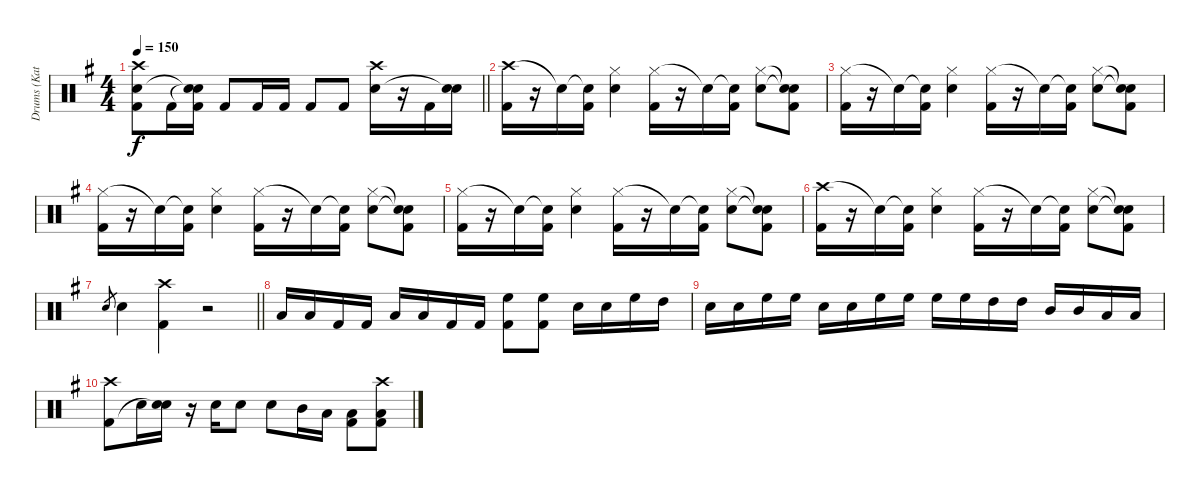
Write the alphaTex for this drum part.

\track ("Drums (Katsuji)" "Drums (Kat") {instrument percussion}
\staff {score}
\articulation defaults
\ts (4 4)
\tempo 150
\clef neutral
\barLineRight lightlight
\ks g
("Crash high (hit)" "Snare (hit) 2" "Kick (hit) 2").8{dy f} "Kick (hit) 2".16 ("Snare (hit)"{t} "Snare (hit)"{t} "Kick (hit) 2").16 "Kick (hit) 2".8 "Kick (hit) 2".16 "Kick (hit) 2".16 "Kick (hit) 2".8 "Kick (hit) 2".8 ("Crash high (hit)" "Snare (hit) 2").16 r.16 "Kick (hit) 2".16 ("Snare (hit) 2" "Snare (hit)"{t}).16 |
("Crash high (hit)" "Kick (hit) 2").16 r.16 "Snare (hit)"{t}.16 ("Snare (hit)"{t} "Kick (hit) 2").16 ("Hi-Hat (closed)" "Snare (hit) 2").4 ("Hi-Hat (closed)" "Kick (hit) 2").16 r.16 "Snare (hit)"{t}.16 ("Snare (hit)"{t} "Kick (hit) 2").16 ("Hi-Hat (closed)" "Snare (hit) 2").8 ("Snare (hit)"{t} "Snare (hit)"{t} "Kick (hit) 2").8 |
("Hi-Hat (closed)" "Kick (hit) 2").16 r.16 "Snare (hit)"{t}.16 ("Snare (hit)"{t} "Kick (hit) 2").16 ("Hi-Hat (closed)" "Snare (hit) 2").4 ("Hi-Hat (closed)" "Kick (hit) 2").16 r.16 "Snare (hit)"{t}.16 ("Snare (hit)"{t} "Kick (hit) 2").16 ("Hi-Hat (closed)" "Snare (hit) 2").8 ("Snare (hit)"{t} "Snare (hit)"{t} "Kick (hit) 2").8 |
("Hi-Hat (closed)" "Kick (hit) 2").16 r.16 "Snare (hit)"{t}.16 ("Snare (hit)"{t} "Kick (hit) 2").16 ("Hi-Hat (closed)" "Snare (hit) 2").4 ("Hi-Hat (closed)" "Kick (hit) 2").16 r.16 "Snare (hit)"{t}.16 ("Snare (hit)"{t} "Kick (hit) 2").16 ("Hi-Hat (closed)" "Snare (hit) 2").8 ("Snare (hit)"{t} "Snare (hit)"{t} "Kick (hit) 2").8 |
("Hi-Hat (closed)" "Kick (hit) 2").16 r.16 "Snare (hit)"{t}.16 ("Snare (hit)"{t} "Kick (hit) 2").16 ("Hi-Hat (closed)" "Snare (hit) 2").4 ("Hi-Hat (closed)" "Kick (hit) 2").16 r.16 "Snare (hit)"{t}.16 ("Snare (hit)"{t} "Kick (hit) 2").16 ("Hi-Hat (closed)" "Snare (hit) 2").8 ("Snare (hit)"{t} "Snare (hit)"{t} "Kick (hit) 2").8 |
("Crash high (hit)" "Kick (hit) 2").16 r.16 "Snare (hit)"{t}.16 ("Snare (hit)"{t} "Kick (hit) 2").16 ("Hi-Hat (closed)" "Snare (hit) 2").4 ("Hi-Hat (closed)" "Kick (hit) 2").16 r.16 "Snare (hit)"{t}.16 ("Snare (hit)"{t} "Kick (hit) 2").16 ("Hi-Hat (closed)" "Snare (hit) 2").8 ("Snare (hit)"{t} "Snare (hit)"{t} "Kick (hit) 2").8 |
\barLineRight lightlight "Snare (hit) 2".8{gr} "Snare (hit) 2".4
("Crash high (hit)" "Kick (hit) 2").4 r.2 |
"Low Tom (hit)".16 "Low Tom (hit)".16 "Kick (hit) 2".16 "Kick (hit) 2".16 "Low Tom (hit)".16 "Low Tom (hit)".16 "Kick (hit) 2".16 "Kick (hit) 2".16 ("High Floor Tom (hit)" "Kick (hit) 2").8 ("High Floor Tom (hit)" "Kick (hit) 2").8 "Snare (hit) 2".16 "Snare (hit) 2".16 "High Floor Tom (hit)".16 "High Tom (hit)".16 |
"Snare (hit) 2".16 "Snare (hit) 2".16 "High Floor Tom (hit)".16 "High Floor Tom (hit)".16 "Snare (hit) 2".16 "Snare (hit) 2".16 "High Floor Tom (hit)".16 "High Floor Tom (hit)".16 "High Floor Tom (hit)".16 "High Floor Tom (hit)".16 "High Tom (hit)".16 "High Tom (hit)".16 "Mid Tom (hit)".16 "Mid Tom (hit)".16 "Low Tom (hit)".16 "Low Tom (hit)".16 |
("Crash high (hit)" "Kick (hit) 2").8 "Snare (hit) 2".16 ("Snare (hit) 2" "Snare (hit)"{t}).16 r.16 "Snare (hit) 2".16 "Snare (hit) 2".8 "Snare (hit) 2".8 "Mid Tom (hit)".16 "Low Tom (hit)".16 ("Low Tom (hit)" "Kick (hit) 2").8 ("Crash high (hit)" "Low Tom (hit)" "Kick (hit) 2").8
